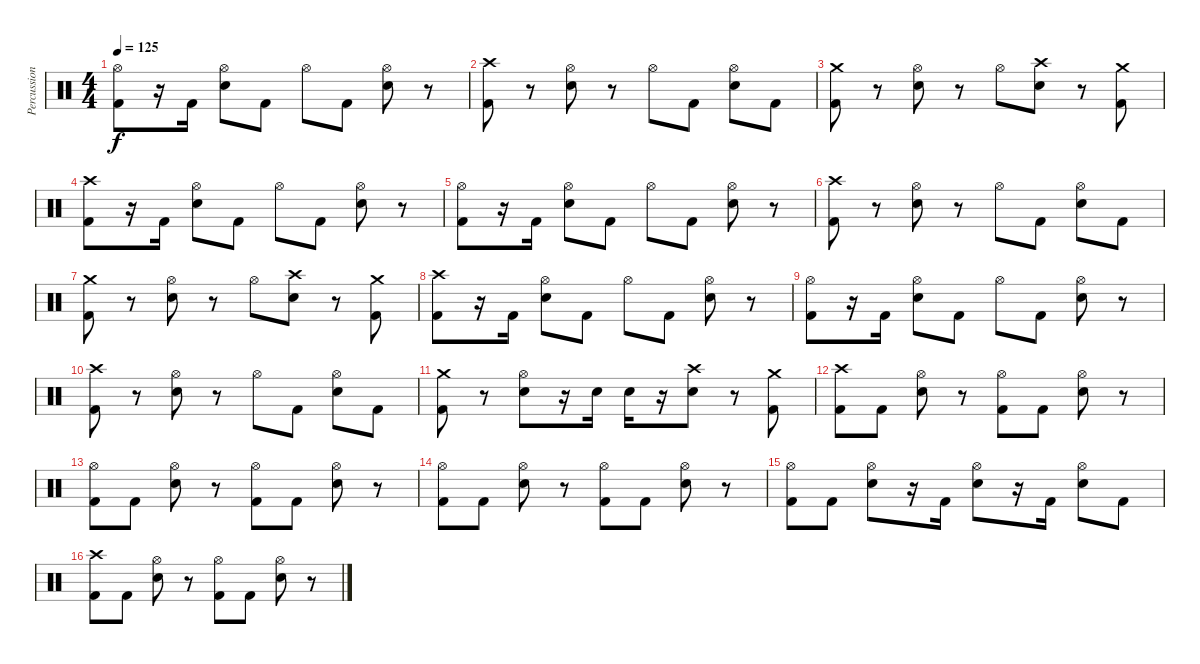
\track ("Percussion" "Percussion") {instrument percussion}
\staff {score}
\articulation defaults
\ts (4 4)
\tempo 125
\clef neutral
\ks c
("Hi-Hat (open)" "Kick (hit) 2").8{dy f} r.16 "Kick (hit) 2".16 ("Hi-Hat (open)" "Snare (hit) 2").8 "Kick (hit) 2".8 "Hi-Hat (open)".8 "Kick (hit) 2".8 ("Hi-Hat (open)" "Snare (hit) 2").8 r.8 |
("Crash high (hit)" "Kick (hit) 2").8 r.8 ("Hi-Hat (open)" "Snare (hit) 2").8 r.8 "Hi-Hat (open)".8 "Kick (hit) 2".8 ("Hi-Hat (open)" "Snare (hit) 2").8 "Kick (hit) 2".8 |
("Crash medium (hit)" "Kick (hit) 2").8 r.8 ("Hi-Hat (open)" "Snare (hit) 2").8 r.8 "Hi-Hat (open)".8 ("Crash high (hit)" "Snare (hit) 2").8 r.8 ("Crash medium (hit)" "Kick (hit) 2").8 |
("Crash high (hit)" "Kick (hit) 2").8 r.16 "Kick (hit) 2".16 ("Hi-Hat (open)" "Snare (hit) 2").8 "Kick (hit) 2".8 "Hi-Hat (open)".8 "Kick (hit) 2".8 ("Hi-Hat (open)" "Snare (hit) 2").8 r.8 |
("Hi-Hat (open)" "Kick (hit) 2").8 r.16 "Kick (hit) 2".16 ("Hi-Hat (open)" "Snare (hit) 2").8 "Kick (hit) 2".8 "Hi-Hat (open)".8 "Kick (hit) 2".8 ("Hi-Hat (open)" "Snare (hit) 2").8 r.8 |
("Crash high (hit)" "Kick (hit) 2").8 r.8 ("Hi-Hat (open)" "Snare (hit) 2").8 r.8 "Hi-Hat (open)".8 "Kick (hit) 2".8 ("Hi-Hat (open)" "Snare (hit) 2").8 "Kick (hit) 2".8 |
("Crash medium (hit)" "Kick (hit) 2").8 r.8 ("Hi-Hat (open)" "Snare (hit) 2").8 r.8 "Hi-Hat (open)".8 ("Crash high (hit)" "Snare (hit) 2").8 r.8 ("Crash medium (hit)" "Kick (hit) 2").8 |
("Crash high (hit)" "Kick (hit) 2").8 r.16 "Kick (hit) 2".16 ("Hi-Hat (open)" "Snare (hit) 2").8 "Kick (hit) 2".8 "Hi-Hat (open)".8 "Kick (hit) 2".8 ("Hi-Hat (open)" "Snare (hit) 2").8 r.8 |
("Hi-Hat (open)" "Kick (hit) 2").8 r.16 "Kick (hit) 2".16 ("Hi-Hat (open)" "Snare (hit) 2").8 "Kick (hit) 2".8 "Hi-Hat (open)".8 "Kick (hit) 2".8 ("Hi-Hat (open)" "Snare (hit) 2").8 r.8 |
("Crash high (hit)" "Kick (hit) 2").8 r.8 ("Hi-Hat (open)" "Snare (hit) 2").8 r.8 "Hi-Hat (open)".8 "Kick (hit) 2".8 ("Hi-Hat (open)" "Snare (hit) 2").8 "Kick (hit) 2".8 |
("Crash medium (hit)" "Kick (hit) 2").8 r.8 ("Hi-Hat (open)" "Snare (hit) 2").8 r.16 "Snare (hit) 2".16 "Snare (hit) 2".16 r.16 ("Crash high (hit)" "Snare (hit) 2").8 r.8 ("Crash medium (hit)" "Kick (hit) 2").8 |
("Crash high (hit)" "Kick (hit) 2").8 "Kick (hit) 2".8 ("Hi-Hat (open)" "Snare (hit) 2").8 r.8 ("Hi-Hat (open)" "Kick (hit) 2").8 "Kick (hit) 2".8 ("Hi-Hat (open)" "Snare (hit) 2").8 r.8 |
("Hi-Hat (open)" "Kick (hit) 2").8 "Kick (hit) 2".8 ("Hi-Hat (open)" "Snare (hit) 2").8 r.8 ("Hi-Hat (open)" "Kick (hit) 2").8 "Kick (hit) 2".8 ("Hi-Hat (open)" "Snare (hit) 2").8 r.8 |
("Hi-Hat (open)" "Kick (hit) 2").8 "Kick (hit) 2".8 ("Hi-Hat (open)" "Snare (hit) 2").8 r.8 ("Hi-Hat (open)" "Kick (hit) 2").8 "Kick (hit) 2".8 ("Hi-Hat (open)" "Snare (hit) 2").8 r.8 |
("Hi-Hat (open)" "Kick (hit) 2").8 "Kick (hit) 2".8 ("Hi-Hat (open)" "Snare (hit) 2").8 r.16 "Kick (hit) 2".16 ("Hi-Hat (open)" "Snare (hit) 2").8 r.16 "Kick (hit) 2".16 ("Hi-Hat (open)" "Snare (hit) 2").8 "Kick (hit) 2".8 |
("Crash high (hit)" "Kick (hit) 2").8 "Kick (hit) 2".8 ("Hi-Hat (open)" "Snare (hit) 2").8 r.8 ("Hi-Hat (open)" "Kick (hit) 2").8 "Kick (hit) 2".8 ("Hi-Hat (open)" "Snare (hit) 2").8 r.8
